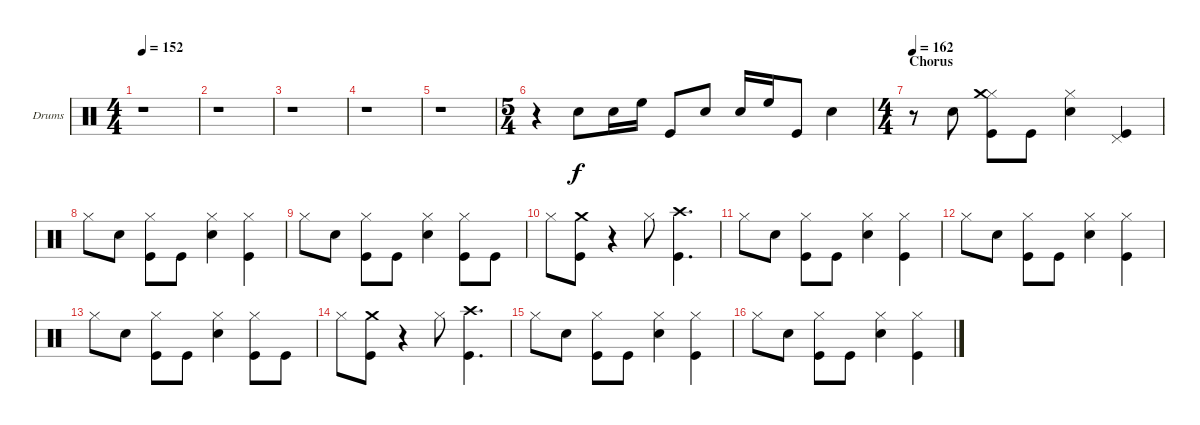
\defaultSystemsLayout 4
\bracketExtendMode groupsimilarinstruments
\firstSystemTrackNameOrientation horizontal
\otherSystemsTrackNameOrientation horizontal
\track ("Drumkit" "Drums") {instrument percussion}
\staff {score}
\articulation defaults
\ts (4 4)
\tempo 152
\clef neutral
\ks c
r.1{dy f} |
r.1 |
r.1 |
r.1 |
r.1 |
\ts (5 4)
r.4 "Snare (hit) 2".8 "Snare (hit) 2".16 "High Floor Tom (hit)".16 "Kick (hit)".8 "Snare (hit) 2".8 "Snare (hit) 2".16 "High Floor Tom (hit)".16 "Kick (hit)".8 "Snare (hit) 2".4 |
\ts (4 4)
\section ("" "Chorus")
\tempo 162
r.8 "Snare (hit) 2".8 ("Hi-Hat (closed)" "Kick (hit)" "Crash medium (hit)").8 "Kick (hit)".8 ("Hi-Hat (closed)" "Snare (hit) 2").4 ("Pedal Hi-Hat (hit)" "Kick (hit)").4 |
"Hi-Hat (closed)".8 "Snare (hit) 2".8 ("Hi-Hat (closed)" "Kick (hit)").8 "Kick (hit)".8 ("Hi-Hat (closed)" "Snare (hit) 2").4 ("Hi-Hat (closed)" "Kick (hit)").4 |
"Hi-Hat (closed)".8 "Snare (hit) 2".8 ("Kick (hit)" "Hi-Hat (closed)").8 "Kick (hit)".8 ("Snare (hit) 2" "Hi-Hat (closed)").4 ("Kick (hit)" "Hi-Hat (closed)").8 "Kick (hit)".8 |
"Hi-Hat (closed)".8 ("Crash medium (hit)" "Kick (hit)").8 r.4 "Hi-Hat (closed)".8 ("Crash high (hit)" "Kick (hit)").4{d} |
"Hi-Hat (closed)".8 "Snare (hit) 2".8 ("Hi-Hat (closed)" "Kick (hit)").8 "Kick (hit)".8 ("Hi-Hat (closed)" "Snare (hit) 2").4 ("Hi-Hat (closed)" "Kick (hit)").4 |
"Hi-Hat (closed)".8 "Snare (hit) 2".8 ("Hi-Hat (closed)" "Kick (hit)").8 "Kick (hit)".8 ("Hi-Hat (closed)" "Snare (hit) 2").4 ("Hi-Hat (closed)" "Kick (hit)").4 |
"Hi-Hat (closed)".8 "Snare (hit) 2".8 ("Kick (hit)" "Hi-Hat (closed)").8 "Kick (hit)".8 ("Snare (hit) 2" "Hi-Hat (closed)").4 ("Kick (hit)" "Hi-Hat (closed)").8 "Kick (hit)".8 |
"Hi-Hat (closed)".8 ("Crash medium (hit)" "Kick (hit)").8 r.4 "Hi-Hat (closed)".8 ("Crash high (hit)" "Kick (hit)").4{d} |
"Hi-Hat (closed)".8 "Snare (hit) 2".8 ("Hi-Hat (closed)" "Kick (hit)").8 "Kick (hit)".8 ("Hi-Hat (closed)" "Snare (hit) 2").4 ("Hi-Hat (closed)" "Kick (hit)").4 |
"Hi-Hat (closed)".8 "Snare (hit) 2".8 ("Hi-Hat (closed)" "Kick (hit)").8 "Kick (hit)".8 ("Hi-Hat (closed)" "Snare (hit) 2").4 ("Hi-Hat (closed)" "Kick (hit)").4
